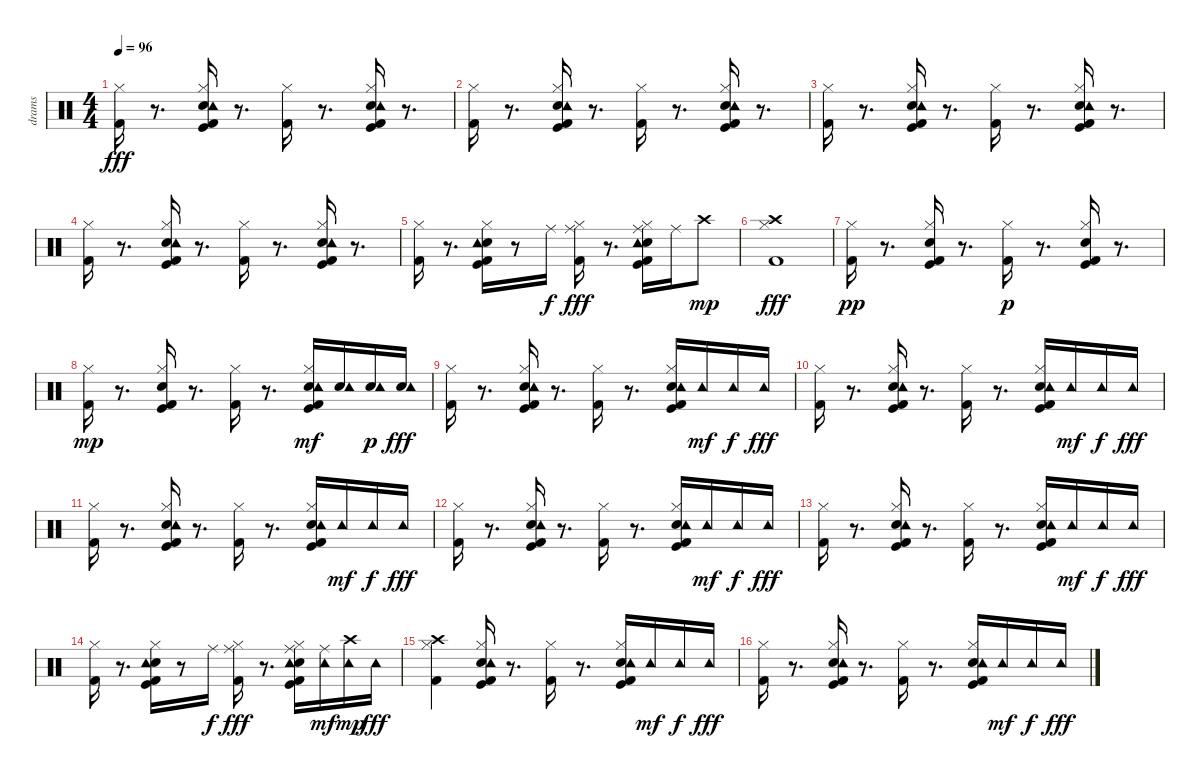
\track ("drams" "drams") {instrument percussion}
\staff {score}
\articulation defaults
\ts (4 4)
\tempo 96
\clef neutral
\ks c
("Kick (hit) 2" "Hi-Hat (closed)").16{dy fff} r.8{d} ("Kick (hit)" "Kick (hit) 2" "Electric Snare (hit)" "Hi-Hat (closed)" "Tambourine (hit)").16 r.8{d} ("Kick (hit) 2" "Hi-Hat (closed)").16 r.8{d} ("Kick (hit)" "Kick (hit) 2" "Electric Snare (hit)" "Hi-Hat (closed)" "Tambourine (hit)").16 r.8{d} |
("Kick (hit) 2" "Hi-Hat (closed)").16 r.8{d} ("Kick (hit)" "Kick (hit) 2" "Electric Snare (hit)" "Hi-Hat (closed)" "Tambourine (hit)").16 r.8{d} ("Kick (hit) 2" "Hi-Hat (closed)").16 r.8{d} ("Kick (hit)" "Kick (hit) 2" "Electric Snare (hit)" "Hi-Hat (closed)" "Tambourine (hit)").16 r.8{d} |
("Kick (hit) 2" "Hi-Hat (closed)").16 r.8{d} ("Kick (hit)" "Kick (hit) 2" "Electric Snare (hit)" "Hi-Hat (closed)" "Tambourine (hit)").16 r.8{d} ("Kick (hit) 2" "Hi-Hat (closed)").16 r.8{d} ("Kick (hit)" "Kick (hit) 2" "Electric Snare (hit)" "Hi-Hat (closed)" "Tambourine (hit)").16 r.8{d} |
("Kick (hit) 2" "Hi-Hat (closed)").16 r.8{d} ("Kick (hit)" "Kick (hit) 2" "Electric Snare (hit)" "Hi-Hat (closed)" "Tambourine (hit)").16 r.8{d} ("Kick (hit) 2" "Hi-Hat (closed)").16 r.8{d} ("Kick (hit)" "Kick (hit) 2" "Electric Snare (hit)" "Hi-Hat (closed)" "Tambourine (hit)").16 r.8{d} |
("Kick (hit) 2" "Hi-Hat (closed)").16 r.8{d} ("Kick (hit)" "Kick (hit) 2" "Electric Snare (hit)" "Hi-Hat (closed)" "Tambourine (hit)").16 r.8 "Ride (middle)".16{dy f} ("Kick (hit) 2" "Hi-Hat (closed)" "Ride (middle)").16{dy fff} r.8{d} ("Kick (hit)" "Kick (hit) 2" "Electric Snare (hit)" "Hi-Hat (closed)" "Ride (middle)" "Tambourine (hit)").16 "Ride (middle)".16 "Crash high (hit)".8{dy mp} |
("Kick (hit) 2" "Hi-Hat (closed)" "Crash high (hit)").1{dy fff} |
("Kick (hit) 2" "Hi-Hat (closed)").16{dy pp} r.8{d} ("Kick (hit)" "Kick (hit) 2" "Electric Snare (hit)" "Hi-Hat (closed)").16 r.8{d} ("Kick (hit) 2" "Hi-Hat (closed)").16{dy p} r.8{d} ("Kick (hit)" "Kick (hit) 2" "Electric Snare (hit)" "Hi-Hat (closed)").16 r.8{d} |
("Kick (hit) 2" "Hi-Hat (closed)").16{dy mp} r.8{d} ("Kick (hit)" "Kick (hit) 2" "Electric Snare (hit)" "Hi-Hat (closed)").16 r.8{d} ("Kick (hit) 2" "Hi-Hat (closed)").16 r.8{d} ("Kick (hit)" "Kick (hit) 2" "Electric Snare (hit)" "Hi-Hat (closed)" "Tambourine (hit)").16{dy mf} ("Electric Snare (hit)" "Tambourine (hit)").16 ("Electric Snare (hit)" "Tambourine (hit)").16{dy p} ("Electric Snare (hit)" "Tambourine (hit)").16{dy fff} |
("Kick (hit) 2" "Hi-Hat (closed)").16 r.8{d} ("Kick (hit)" "Kick (hit) 2" "Electric Snare (hit)" "Hi-Hat (closed)" "Tambourine (hit)").16 r.8{d} ("Kick (hit) 2" "Hi-Hat (closed)").16 r.8{d} ("Kick (hit)" "Kick (hit) 2" "Electric Snare (hit)" "Hi-Hat (closed)" "Tambourine (hit)").16 "Tambourine (hit)".16{dy mf} "Tambourine (hit)".16{dy f} "Tambourine (hit)".16{dy fff} |
("Kick (hit) 2" "Hi-Hat (closed)").16 r.8{d} ("Kick (hit)" "Kick (hit) 2" "Electric Snare (hit)" "Hi-Hat (closed)" "Tambourine (hit)").16 r.8{d} ("Kick (hit) 2" "Hi-Hat (closed)").16 r.8{d} ("Kick (hit)" "Kick (hit) 2" "Electric Snare (hit)" "Hi-Hat (closed)" "Tambourine (hit)").16 "Tambourine (hit)".16{dy mf} "Tambourine (hit)".16{dy f} "Tambourine (hit)".16{dy fff} |
("Kick (hit) 2" "Hi-Hat (closed)").16 r.8{d} ("Kick (hit)" "Kick (hit) 2" "Electric Snare (hit)" "Hi-Hat (closed)" "Tambourine (hit)").16 r.8{d} ("Kick (hit) 2" "Hi-Hat (closed)").16 r.8{d} ("Kick (hit)" "Kick (hit) 2" "Electric Snare (hit)" "Hi-Hat (closed)" "Tambourine (hit)").16 "Tambourine (hit)".16{dy mf} "Tambourine (hit)".16{dy f} "Tambourine (hit)".16{dy fff} |
("Kick (hit) 2" "Hi-Hat (closed)").16 r.8{d} ("Kick (hit)" "Kick (hit) 2" "Electric Snare (hit)" "Hi-Hat (closed)" "Tambourine (hit)").16 r.8{d} ("Kick (hit) 2" "Hi-Hat (closed)").16 r.8{d} ("Kick (hit)" "Kick (hit) 2" "Electric Snare (hit)" "Hi-Hat (closed)" "Tambourine (hit)").16 "Tambourine (hit)".16{dy mf} "Tambourine (hit)".16{dy f} "Tambourine (hit)".16{dy fff} |
("Kick (hit) 2" "Hi-Hat (closed)").16 r.8{d} ("Kick (hit)" "Kick (hit) 2" "Electric Snare (hit)" "Hi-Hat (closed)" "Tambourine (hit)").16 r.8{d} ("Kick (hit) 2" "Hi-Hat (closed)").16 r.8{d} ("Kick (hit)" "Kick (hit) 2" "Electric Snare (hit)" "Hi-Hat (closed)" "Tambourine (hit)").16 "Tambourine (hit)".16{dy mf} "Tambourine (hit)".16{dy f} "Tambourine (hit)".16{dy fff} |
("Kick (hit) 2" "Hi-Hat (closed)").16 r.8{d} ("Kick (hit)" "Kick (hit) 2" "Electric Snare (hit)" "Hi-Hat (closed)" "Tambourine (hit)").16 r.8 "Ride (middle)".16{dy f} ("Kick (hit) 2" "Hi-Hat (closed)" "Ride (middle)").16{dy fff} r.8{d} ("Kick (hit)" "Kick (hit) 2" "Electric Snare (hit)" "Hi-Hat (closed)" "Ride (middle)" "Tambourine (hit)").16 ("Ride (middle)" "Tambourine (hit)").16{dy mf} ("Crash high (hit)" "Tambourine (hit)").16{dy mp} "Tambourine (hit)".16{dy fff} |
("Kick (hit) 2" "Hi-Hat (closed)" "Crash high (hit)").4 ("Kick (hit)" "Kick (hit) 2" "Electric Snare (hit)" "Hi-Hat (closed)" "Tambourine (hit)").16 r.8{d} ("Kick (hit) 2" "Hi-Hat (closed)").16 r.8{d} ("Kick (hit)" "Kick (hit) 2" "Electric Snare (hit)" "Hi-Hat (closed)" "Tambourine (hit)").16 "Tambourine (hit)".16{dy mf} "Tambourine (hit)".16{dy f} "Tambourine (hit)".16{dy fff} |
("Kick (hit) 2" "Hi-Hat (closed)").16 r.8{d} ("Kick (hit)" "Kick (hit) 2" "Electric Snare (hit)" "Hi-Hat (closed)" "Tambourine (hit)").16 r.8{d} ("Kick (hit) 2" "Hi-Hat (closed)").16 r.8{d} ("Kick (hit)" "Kick (hit) 2" "Electric Snare (hit)" "Hi-Hat (closed)" "Tambourine (hit)").16 "Tambourine (hit)".16{dy mf} "Tambourine (hit)".16{dy f} "Tambourine (hit)".16{dy fff}
